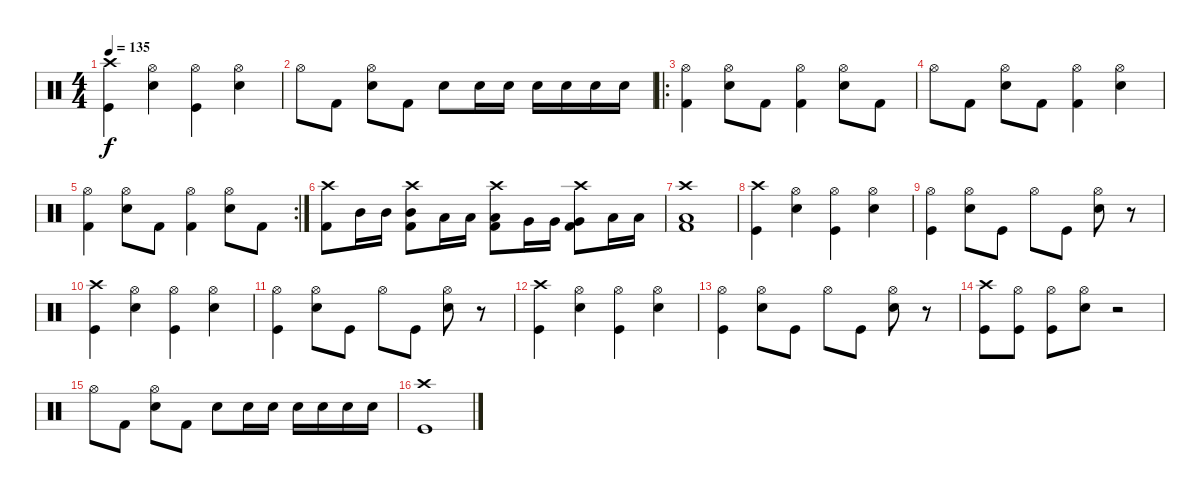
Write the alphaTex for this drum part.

\track "" {instrument percussion}
\staff {score}
\articulation defaults
\ts (4 4)
\tempo 135
\clef neutral
\ks c
("Kick (hit)" "Crash high (hit)").4{dy f} ("Snare (hit) 2" "Hi-Hat (open)").4 ("Hi-Hat (open)" "Kick (hit)").4 ("Snare (hit) 2" "Hi-Hat (open)").4 |
"Hi-Hat (open)".8 "Kick (hit) 2".8 ("Hi-Hat (open)" "Electric Snare (hit)").8 "Kick (hit) 2".8 "Electric Snare (hit)".8 "Electric Snare (hit)".16 "Electric Snare (hit)".16 "Electric Snare (hit)".16 "Electric Snare (hit)".16 "Electric Snare (hit)".16 "Electric Snare (hit)".16 |
\ro
("Hi-Hat (open)" "Kick (hit) 2").4 ("Hi-Hat (open)" "Electric Snare (hit)").8 "Kick (hit) 2".8 ("Hi-Hat (open)" "Kick (hit) 2").4 ("Hi-Hat (open)" "Electric Snare (hit)").8 "Kick (hit) 2".8 |
"Hi-Hat (open)".8 "Kick (hit) 2".8 ("Hi-Hat (open)" "Electric Snare (hit)").8 "Kick (hit) 2".8 ("Hi-Hat (open)" "Kick (hit) 2").4 ("Hi-Hat (open)" "Electric Snare (hit)").4 |
\rc 2
("Hi-Hat (open)" "Kick (hit) 2").4 ("Hi-Hat (open)" "Electric Snare (hit)").8 "Kick (hit) 2".8 ("Hi-Hat (open)" "Kick (hit) 2").4 ("Hi-Hat (open)" "Electric Snare (hit)").8 "Kick (hit) 2".8 |
("Crash high (hit)" "Kick (hit) 2").8 "Mid Tom (hit)".16 "Mid Tom (hit)".16 ("Crash high (hit)" "Mid Tom (hit)" "Kick (hit) 2").8 "Low Tom (hit)".16 "Low Tom (hit)".16 ("Crash high (hit)" "Low Tom (hit)" "Kick (hit) 2").8 "Very Low Tom (hit)".16 "Very Low Tom (hit)".16 ("Crash high (hit)" "Very Low Tom (hit)" "Kick (hit) 2").8 "Low Floor Tom (hit)".16 "Low Floor Tom (hit)".16 |
("Crash high (hit)" "Low Floor Tom (hit)" "Kick (hit) 2").1 |
("Kick (hit)" "Crash high (hit)").4 ("Snare (hit) 2" "Hi-Hat (open)").4 ("Hi-Hat (open)" "Kick (hit)").4 ("Snare (hit) 2" "Hi-Hat (open)").4 |
("Kick (hit)" "Hi-Hat (open)").4 ("Snare (hit) 2" "Hi-Hat (open)").8 "Kick (hit)".8 "Hi-Hat (open)".8 "Kick (hit)".8 ("Snare (hit) 2" "Hi-Hat (open)").8 r.8 |
("Kick (hit)" "Crash high (hit)").4 ("Snare (hit) 2" "Hi-Hat (open)").4 ("Hi-Hat (open)" "Kick (hit)").4 ("Snare (hit) 2" "Hi-Hat (open)").4 |
("Kick (hit)" "Hi-Hat (open)").4 ("Snare (hit) 2" "Hi-Hat (open)").8 "Kick (hit)".8 "Hi-Hat (open)".8 "Kick (hit)".8 ("Snare (hit) 2" "Hi-Hat (open)").8 r.8 |
("Kick (hit)" "Crash high (hit)").4 ("Snare (hit) 2" "Hi-Hat (open)").4 ("Hi-Hat (open)" "Kick (hit)").4 ("Snare (hit) 2" "Hi-Hat (open)").4 |
("Kick (hit)" "Hi-Hat (open)").4 ("Snare (hit) 2" "Hi-Hat (open)").8 "Kick (hit)".8 "Hi-Hat (open)".8 "Kick (hit)".8 ("Snare (hit) 2" "Hi-Hat (open)").8 r.8 |
("Kick (hit)" "Crash high (hit)").8 ("Kick (hit)" "Hi-Hat (open)").8 ("Hi-Hat (open)" "Kick (hit)").8 ("Snare (hit) 2" "Hi-Hat (open)").8 r.2 |
"Hi-Hat (open)".8 "Kick (hit) 2".8 ("Hi-Hat (open)" "Electric Snare (hit)").8 "Kick (hit) 2".8 "Electric Snare (hit)".8 "Electric Snare (hit)".16 "Electric Snare (hit)".16 "Electric Snare (hit)".16 "Electric Snare (hit)".16 "Electric Snare (hit)".16 "Electric Snare (hit)".16 |
("Kick (hit)" "Crash high (hit)").1
